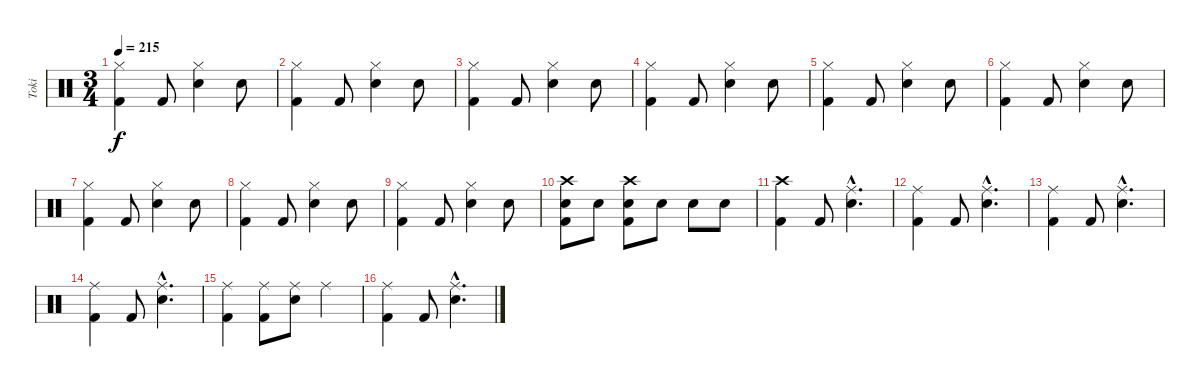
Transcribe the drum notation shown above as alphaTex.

\track ("Toki" "Toki") {instrument percussion}
\staff {score}
\articulation defaults
\ts (3 4)
\tempo 215
\clef neutral
\ks c
("Kick (hit) 2" "Hi-Hat (closed)").4{dy f} "Kick (hit) 2".8 ("Hi-Hat (closed)" "Snare (hit) 2").4 "Snare (hit) 2".8 |
("Kick (hit) 2" "Hi-Hat (closed)").4 "Kick (hit) 2".8 ("Hi-Hat (closed)" "Snare (hit) 2").4 "Snare (hit) 2".8 |
("Kick (hit) 2" "Hi-Hat (closed)").4 "Kick (hit) 2".8 ("Hi-Hat (closed)" "Snare (hit) 2").4 "Snare (hit) 2".8 |
("Kick (hit) 2" "Hi-Hat (closed)").4 "Kick (hit) 2".8 ("Hi-Hat (closed)" "Snare (hit) 2").4 "Snare (hit) 2".8 |
("Kick (hit) 2" "Hi-Hat (closed)").4 "Kick (hit) 2".8 ("Hi-Hat (closed)" "Snare (hit) 2").4 "Snare (hit) 2".8 |
("Kick (hit) 2" "Hi-Hat (closed)").4 "Kick (hit) 2".8 ("Hi-Hat (closed)" "Snare (hit) 2").4 "Snare (hit) 2".8 |
("Kick (hit) 2" "Hi-Hat (closed)").4 "Kick (hit) 2".8 ("Hi-Hat (closed)" "Snare (hit) 2").4 "Snare (hit) 2".8 |
("Kick (hit) 2" "Hi-Hat (closed)").4 "Kick (hit) 2".8 ("Hi-Hat (closed)" "Snare (hit) 2").4 "Snare (hit) 2".8 |
("Kick (hit) 2" "Hi-Hat (closed)").4 "Kick (hit) 2".8 ("Hi-Hat (closed)" "Snare (hit) 2").4 "Snare (hit) 2".8 |
("Kick (hit) 2" "Crash high (hit)" "Snare (hit) 2").8 "Snare (hit) 2".8 ("Kick (hit) 2" "Crash high (hit)" "Snare (hit) 2").8 "Snare (hit) 2".8 "Snare (hit) 2".8 "Snare (hit) 2".8 |
("Kick (hit) 2" "Crash high (hit)").4 "Kick (hit) 2".8 ("Ride (middle)"{hac} "Snare (hit) 2"{hac}).4{d} |
("Kick (hit) 2" "Ride (middle)").4 "Kick (hit) 2".8 ("Ride (middle)"{hac} "Snare (hit) 2"{hac}).4{d} |
("Kick (hit) 2" "Ride (middle)").4 "Kick (hit) 2".8 ("Ride (middle)"{hac} "Snare (hit) 2"{hac}).4{d} |
("Kick (hit) 2" "Ride (middle)").4 "Kick (hit) 2".8 ("Ride (middle)"{hac} "Snare (hit) 2"{hac}).4{d} |
("Kick (hit) 2" "Ride (middle)").4 ("Kick (hit) 2" "Ride (middle)").8 ("Ride (middle)" "Snare (hit) 2").8 "Ride (middle)".4 |
("Kick (hit) 2" "Ride (middle)").4 "Kick (hit) 2".8 ("Ride (middle)"{hac} "Snare (hit) 2"{hac}).4{d}
